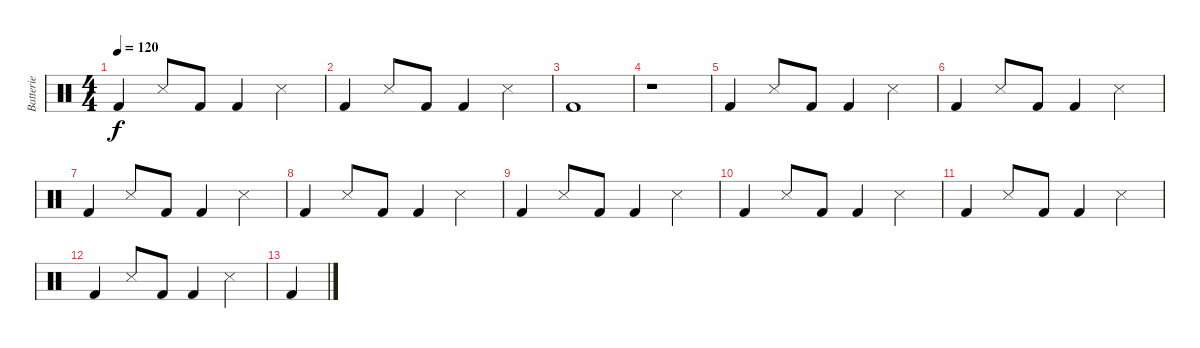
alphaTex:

\track ("Batterie" "Batterie") {instrument percussion}
\staff {score}
\articulation defaults
\ts (4 4)
\tempo 120
\clef neutral
\ks c "Kick (hit) 2".4{dy f} "Snare (side stick) 3".8 "Kick (hit) 2".8 "Kick (hit) 2".4 "Snare (side stick) 3".4
|
"Kick (hit) 2".4 "Snare (side stick) 3".8 "Kick (hit) 2".8 "Kick (hit) 2".4 "Snare (side stick) 3".4 |
"Kick (hit) 2".1 |
r.1 |
"Kick (hit) 2".4 "Snare (side stick) 3".8 "Kick (hit) 2".8 "Kick (hit) 2".4 "Snare (side stick) 3".4 |
"Kick (hit) 2".4 "Snare (side stick) 3".8 "Kick (hit) 2".8 "Kick (hit) 2".4 "Snare (side stick) 3".4 |
"Kick (hit) 2".4 "Snare (side stick) 3".8 "Kick (hit) 2".8 "Kick (hit) 2".4 "Snare (side stick) 3".4 |
"Kick (hit) 2".4 "Snare (side stick) 3".8 "Kick (hit) 2".8 "Kick (hit) 2".4 "Snare (side stick) 3".4 |
"Kick (hit) 2".4 "Snare (side stick) 3".8 "Kick (hit) 2".8 "Kick (hit) 2".4 "Snare (side stick) 3".4 |
"Kick (hit) 2".4 "Snare (side stick) 3".8 "Kick (hit) 2".8 "Kick (hit) 2".4 "Snare (side stick) 3".4 |
"Kick (hit) 2".4 "Snare (side stick) 3".8 "Kick (hit) 2".8 "Kick (hit) 2".4 "Snare (side stick) 3".4 |
"Kick (hit) 2".4 "Snare (side stick) 3".8 "Kick (hit) 2".8 "Kick (hit) 2".4 "Snare (side stick) 3".4 |
"Kick (hit) 2".4
